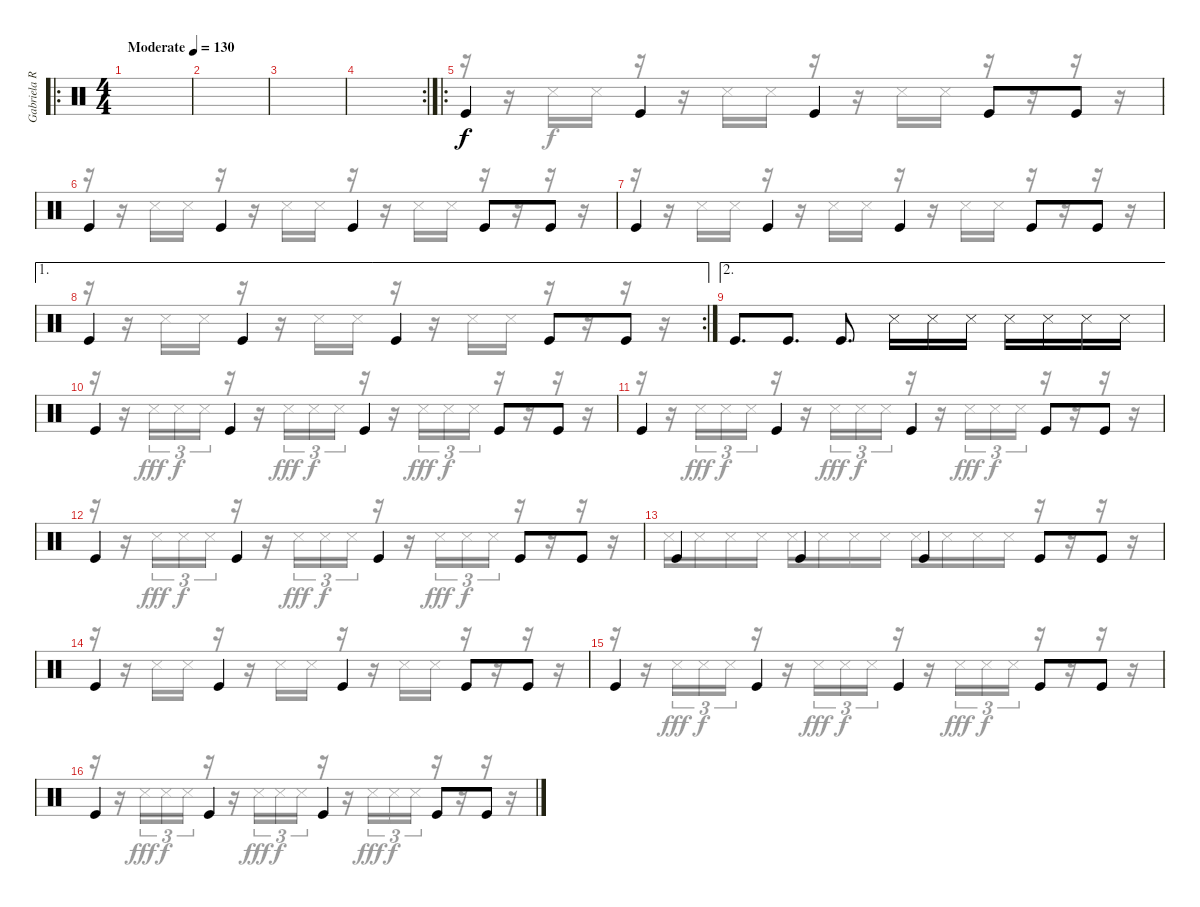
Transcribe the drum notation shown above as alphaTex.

\track ("Gabriela Rythmics" "Gabriela R") {instrument percussion}
\staff {score}
\articulation defaults
\voice
\ro
\ts (4 4)
\tempo (130 "Moderate")
\clef neutral
\ks c
|
|
|
\rc 2
|
\ro "Kick (hit)".4 "Kick (hit)".4 "Kick (hit)".4 "Kick (hit)".8 "Kick (hit)".8
|
"Kick (hit)".4 "Kick (hit)".4 "Kick (hit)".4 "Kick (hit)".8 "Kick (hit)".8 |
"Kick (hit)".4 "Kick (hit)".4 "Kick (hit)".4 "Kick (hit)".8 "Kick (hit)".8 |
\ae 1
\rc 2 "Kick (hit)".4 "Kick (hit)".4 "Kick (hit)".4 "Kick (hit)".8 "Kick (hit)".8
|
\ae 2 "Kick (hit)".8{d} "Kick (hit)".8{d} "Kick (hit)".8{d} "Snare (side stick) 3".16 "Snare (side stick) 3".16 "Snare (side stick) 3".16 "Snare (side stick) 3".16 "Snare (side stick) 3".16 "Snare (side stick) 3".16 "Snare (side stick) 3".16
|
"Kick (hit)".4 "Kick (hit)".4 "Kick (hit)".4 "Kick (hit)".8 "Kick (hit)".8 |
"Kick (hit)".4 "Kick (hit)".4 "Kick (hit)".4 "Kick (hit)".8 "Kick (hit)".8 |
"Kick (hit)".4 "Kick (hit)".4 "Kick (hit)".4 "Kick (hit)".8 "Kick (hit)".8 |
"Kick (hit)".4 "Kick (hit)".4 "Kick (hit)".4 "Kick (hit)".8 "Kick (hit)".8 |
"Kick (hit)".4 "Kick (hit)".4 "Kick (hit)".4 "Kick (hit)".8 "Kick (hit)".8 |
"Kick (hit)".4 "Kick (hit)".4 "Kick (hit)".4 "Kick (hit)".8 "Kick (hit)".8 |
"Kick (hit)".4 "Kick (hit)".4 "Kick (hit)".4 "Kick (hit)".8 "Kick (hit)".8
\voice
\clef neutral
\ottava regular
\simile none
\ks c
|
|
|
|
r.16 r.16 "Snare (side stick) 3".16 "Snare (side stick) 3".16 r.16 r.16 "Snare (side stick) 3".16 "Snare (side stick) 3".16 r.16 r.16 "Snare (side stick) 3".16 "Snare (side stick) 3".16 r.16 r.16 r.16 r.16 |
r.16 r.16 "Snare (side stick) 3".16 "Snare (side stick) 3".16 r.16 r.16 "Snare (side stick) 3".16 "Snare (side stick) 3".16 r.16 r.16 "Snare (side stick) 3".16 "Snare (side stick) 3".16 r.16 r.16 r.16 r.16 |
r.16 r.16 "Snare (side stick) 3".16 "Snare (side stick) 3".16 r.16 r.16 "Snare (side stick) 3".16 "Snare (side stick) 3".16 r.16 r.16 "Snare (side stick) 3".16 "Snare (side stick) 3".16 r.16 r.16 r.16 r.16 |
r.16 r.16 "Snare (side stick) 3".16 "Snare (side stick) 3".16 r.16 r.16 "Snare (side stick) 3".16 "Snare (side stick) 3".16 r.16 r.16 "Snare (side stick) 3".16 "Snare (side stick) 3".16 r.16 r.16 r.16 r.16 |
|
r.16 r.16 "Snare (side stick) 3".16{tu (3 2) dy fff} "Snare (side stick) 3".16{tu (3 2) dy f} "Snare (side stick) 3".16{tu (3 2)} r.16 r.16 "Snare (side stick) 3".16{tu (3 2) dy fff} "Snare (side stick) 3".16{tu (3 2) dy f} "Snare (side stick) 3".16{tu (3 2)} r.16 r.16 "Snare (side stick) 3".16{tu (3 2) dy fff} "Snare (side stick) 3".16{tu (3 2) dy f} "Snare (side stick) 3".16{tu (3 2)} r.16 r.16 r.16 r.16 |
r.16 r.16 "Snare (side stick) 3".16{tu (3 2) dy fff} "Snare (side stick) 3".16{tu (3 2) dy f} "Snare (side stick) 3".16{tu (3 2)} r.16 r.16 "Snare (side stick) 3".16{tu (3 2) dy fff} "Snare (side stick) 3".16{tu (3 2) dy f} "Snare (side stick) 3".16{tu (3 2)} r.16 r.16 "Snare (side stick) 3".16{tu (3 2) dy fff} "Snare (side stick) 3".16{tu (3 2) dy f} "Snare (side stick) 3".16{tu (3 2)} r.16 r.16 r.16 r.16 |
r.16 r.16 "Snare (side stick) 3".16{tu (3 2) dy fff} "Snare (side stick) 3".16{tu (3 2) dy f} "Snare (side stick) 3".16{tu (3 2)} r.16 r.16 "Snare (side stick) 3".16{tu (3 2) dy fff} "Snare (side stick) 3".16{tu (3 2) dy f} "Snare (side stick) 3".16{tu (3 2)} r.16 r.16 "Snare (side stick) 3".16{tu (3 2) dy fff} "Snare (side stick) 3".16{tu (3 2) dy f} "Snare (side stick) 3".16{tu (3 2)} r.16 r.16 r.16 r.16 |
"Snare (side stick) 3".16 "Snare (side stick) 3".16 "Snare (side stick) 3".16 "Snare (side stick) 3".16 "Snare (side stick) 3".16 "Snare (side stick) 3".16 "Snare (side stick) 3".16 "Snare (side stick) 3".16 "Snare (side stick) 3".16 "Snare (side stick) 3".16 "Snare (side stick) 3".16 "Snare (side stick) 3".16 r.16 r.16 r.16 r.16 |
r.16 r.16 "Snare (side stick) 3".16 "Snare (side stick) 3".16 r.16 r.16 "Snare (side stick) 3".16 "Snare (side stick) 3".16 r.16 r.16 "Snare (side stick) 3".16 "Snare (side stick) 3".16 r.16 r.16 r.16 r.16 |
r.16 r.16 "Snare (side stick) 3".16{tu (3 2) dy fff} "Snare (side stick) 3".16{tu (3 2) dy f} "Snare (side stick) 3".16{tu (3 2)} r.16 r.16 "Snare (side stick) 3".16{tu (3 2) dy fff} "Snare (side stick) 3".16{tu (3 2) dy f} "Snare (side stick) 3".16{tu (3 2)} r.16 r.16 "Snare (side stick) 3".16{tu (3 2) dy fff} "Snare (side stick) 3".16{tu (3 2) dy f} "Snare (side stick) 3".16{tu (3 2)} r.16 r.16 r.16 r.16 |
r.16 r.16 "Snare (side stick) 3".16{tu (3 2) dy fff} "Snare (side stick) 3".16{tu (3 2) dy f} "Snare (side stick) 3".16{tu (3 2)} r.16 r.16 "Snare (side stick) 3".16{tu (3 2) dy fff} "Snare (side stick) 3".16{tu (3 2) dy f} "Snare (side stick) 3".16{tu (3 2)} r.16 r.16 "Snare (side stick) 3".16{tu (3 2) dy fff} "Snare (side stick) 3".16{tu (3 2) dy f} "Snare (side stick) 3".16{tu (3 2)} r.16 r.16 r.16 r.16
